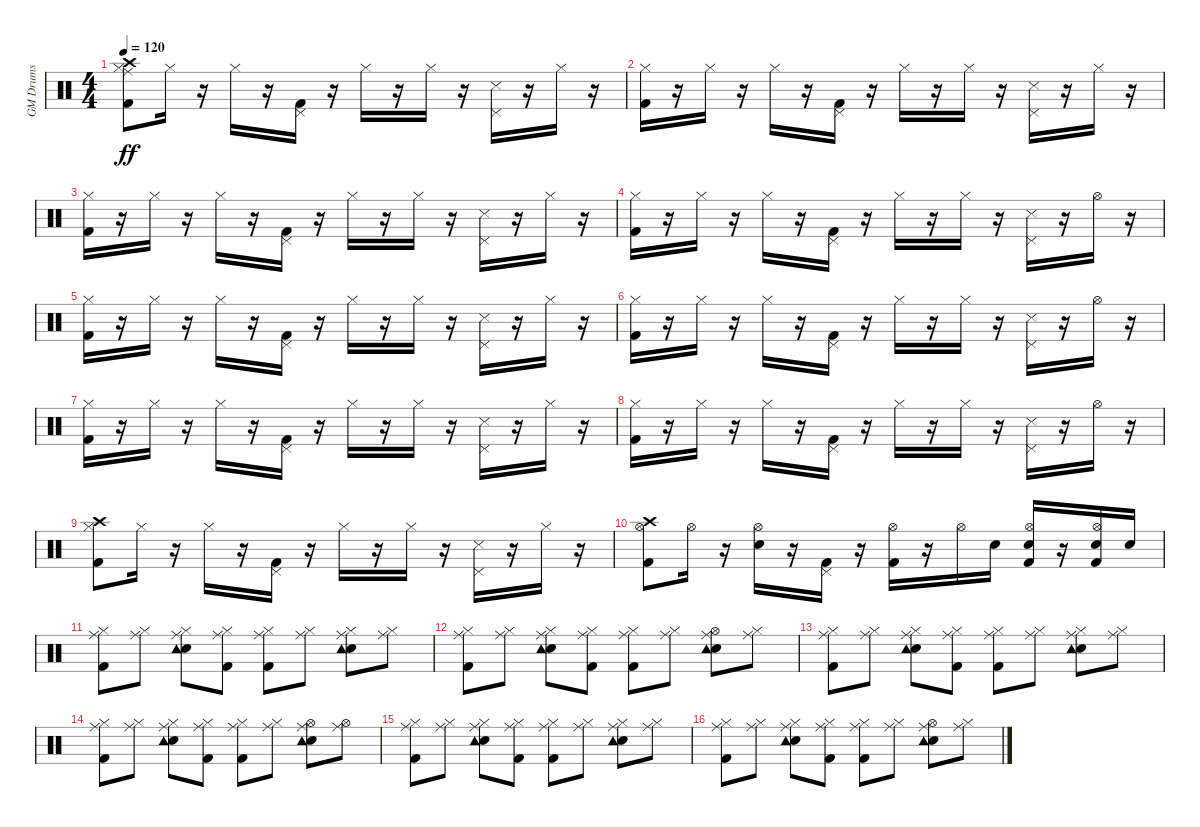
\track ("GM Drums" "GM Drums") {instrument percussion}
\staff {score}
\articulation defaults
\ts (4 4)
\tempo 120
\clef neutral
\ks c
("Kick (hit) 2" "Hi-Hat (closed)" "Crash high (hit)" "Ride (middle)").8{dy ff} "Hi-Hat (closed)".16 r.16 "Hi-Hat (closed)".16 r.16 ("Kick (hit) 2" "Pedal Hi-Hat (hit)").16 r.16 "Hi-Hat (closed)".16 r.16 "Hi-Hat (closed)".16 r.16 ("Snare (side stick) 3" "Pedal Hi-Hat (hit)").16 r.16 "Hi-Hat (closed)".16 r.16 |
("Kick (hit) 2" "Hi-Hat (closed)").16 r.16 "Hi-Hat (closed)".16 r.16 "Hi-Hat (closed)".16 r.16 ("Kick (hit) 2" "Pedal Hi-Hat (hit)").16 r.16 "Hi-Hat (closed)".16 r.16 "Hi-Hat (closed)".16 r.16 ("Snare (side stick) 3" "Pedal Hi-Hat (hit)").16 r.16 "Hi-Hat (closed)".16 r.16 |
("Kick (hit) 2" "Hi-Hat (closed)").16 r.16 "Hi-Hat (closed)".16 r.16 "Hi-Hat (closed)".16 r.16 ("Kick (hit) 2" "Pedal Hi-Hat (hit)").16 r.16 "Hi-Hat (closed)".16 r.16 "Hi-Hat (closed)".16 r.16 ("Snare (side stick) 3" "Pedal Hi-Hat (hit)").16 r.16 "Hi-Hat (closed)".16 r.16 |
("Kick (hit) 2" "Hi-Hat (closed)").16 r.16 "Hi-Hat (closed)".16 r.16 "Hi-Hat (closed)".16 r.16 ("Kick (hit) 2" "Pedal Hi-Hat (hit)").16 r.16 "Hi-Hat (closed)".16 r.16 "Hi-Hat (closed)".16 r.16 ("Snare (side stick) 3" "Pedal Hi-Hat (hit)").16 r.16 "Hi-Hat (open)".16 r.16 |
("Kick (hit) 2" "Hi-Hat (closed)").16 r.16 "Hi-Hat (closed)".16 r.16 "Hi-Hat (closed)".16 r.16 ("Kick (hit) 2" "Pedal Hi-Hat (hit)").16 r.16 "Hi-Hat (closed)".16 r.16 "Hi-Hat (closed)".16 r.16 ("Snare (side stick) 3" "Pedal Hi-Hat (hit)").16 r.16 "Hi-Hat (closed)".16 r.16 |
("Kick (hit) 2" "Hi-Hat (closed)").16 r.16 "Hi-Hat (closed)".16 r.16 "Hi-Hat (closed)".16 r.16 ("Kick (hit) 2" "Pedal Hi-Hat (hit)").16 r.16 "Hi-Hat (closed)".16 r.16 "Hi-Hat (closed)".16 r.16 ("Snare (side stick) 3" "Pedal Hi-Hat (hit)").16 r.16 "Hi-Hat (open)".16 r.16 |
("Kick (hit) 2" "Hi-Hat (closed)").16 r.16 "Hi-Hat (closed)".16 r.16 "Hi-Hat (closed)".16 r.16 ("Kick (hit) 2" "Pedal Hi-Hat (hit)").16 r.16 "Hi-Hat (closed)".16 r.16 "Hi-Hat (closed)".16 r.16 ("Snare (side stick) 3" "Pedal Hi-Hat (hit)").16 r.16 "Hi-Hat (closed)".16 r.16 |
("Kick (hit) 2" "Hi-Hat (closed)").16 r.16 "Hi-Hat (closed)".16 r.16 "Hi-Hat (closed)".16 r.16 ("Kick (hit) 2" "Pedal Hi-Hat (hit)").16 r.16 "Hi-Hat (closed)".16 r.16 "Hi-Hat (closed)".16 r.16 ("Snare (side stick) 3" "Pedal Hi-Hat (hit)").16 r.16 "Hi-Hat (open)".16 r.16 |
("Kick (hit) 2" "Hi-Hat (closed)" "Crash high (hit)").8 "Hi-Hat (closed)".16 r.16 "Hi-Hat (closed)".16 r.16 ("Kick (hit) 2" "Pedal Hi-Hat (hit)").16 r.16 "Hi-Hat (closed)".16 r.16 "Hi-Hat (closed)".16 r.16 ("Snare (side stick) 3" "Pedal Hi-Hat (hit)").16 r.16 "Hi-Hat (closed)".16 r.16 |
("Kick (hit) 2" "Hi-Hat (open)" "Crash high (hit)").8 "Hi-Hat (open)".16 r.16 ("Electric Snare (hit)" "Hi-Hat (open)").16 r.16 ("Kick (hit) 2" "Pedal Hi-Hat (hit)").16 r.16 ("Kick (hit) 2" "Hi-Hat (open)").16 r.16 "Hi-Hat (open)".16 "Electric Snare (hit)".16 ("Kick (hit) 2" "Electric Snare (hit)" "Hi-Hat (open)").16 r.16 ("Kick (hit) 2" "Electric Snare (hit)" "Hi-Hat (open)").16 "Electric Snare (hit)".16 |
("Kick (hit) 2" "Hi-Hat (closed)" "Ride (middle)").8 ("Hi-Hat (closed)" "Ride (middle)").8 ("Electric Snare (hit)" "Hi-Hat (closed)" "Ride (middle)" "Tambourine (hit)").8 ("Kick (hit) 2" "Hi-Hat (closed)" "Ride (middle)").8 ("Kick (hit) 2" "Hi-Hat (closed)" "Ride (middle)").8 ("Hi-Hat (closed)" "Ride (middle)").8 ("Electric Snare (hit)" "Hi-Hat (closed)" "Ride (middle)" "Tambourine (hit)").8 ("Hi-Hat (closed)" "Ride (middle)").8 |
("Kick (hit) 2" "Hi-Hat (closed)" "Ride (middle)").8 ("Hi-Hat (closed)" "Ride (middle)").8 ("Electric Snare (hit)" "Hi-Hat (closed)" "Ride (middle)" "Tambourine (hit)").8 ("Kick (hit) 2" "Hi-Hat (closed)" "Ride (middle)").8 ("Kick (hit) 2" "Hi-Hat (closed)" "Ride (middle)").8 ("Hi-Hat (closed)" "Ride (middle)").8 ("Electric Snare (hit)" "Hi-Hat (open)" "Ride (middle)" "Tambourine (hit)").8 ("Hi-Hat (closed)" "Ride (middle)").8 |
("Kick (hit) 2" "Hi-Hat (closed)" "Ride (middle)").8 ("Hi-Hat (closed)" "Ride (middle)").8 ("Electric Snare (hit)" "Hi-Hat (closed)" "Ride (middle)" "Tambourine (hit)").8 ("Kick (hit) 2" "Hi-Hat (closed)" "Ride (middle)").8 ("Kick (hit) 2" "Hi-Hat (closed)" "Ride (middle)").8 ("Hi-Hat (closed)" "Ride (middle)").8 ("Electric Snare (hit)" "Hi-Hat (closed)" "Ride (middle)" "Tambourine (hit)").8 ("Hi-Hat (closed)" "Ride (middle)").8 |
("Kick (hit) 2" "Hi-Hat (closed)" "Ride (middle)").8 ("Hi-Hat (closed)" "Ride (middle)").8 ("Electric Snare (hit)" "Hi-Hat (closed)" "Ride (middle)" "Tambourine (hit)").8 ("Kick (hit) 2" "Hi-Hat (closed)" "Ride (middle)").8 ("Kick (hit) 2" "Hi-Hat (closed)" "Ride (middle)").8 ("Hi-Hat (closed)" "Ride (middle)").8 ("Electric Snare (hit)" "Hi-Hat (open)" "Ride (middle)" "Tambourine (hit)").8 ("Hi-Hat (open)" "Ride (middle)").8 |
("Kick (hit) 2" "Hi-Hat (closed)" "Ride (middle)").8 ("Hi-Hat (closed)" "Ride (middle)").8 ("Electric Snare (hit)" "Hi-Hat (closed)" "Ride (middle)" "Tambourine (hit)").8 ("Kick (hit) 2" "Hi-Hat (closed)" "Ride (middle)").8 ("Kick (hit) 2" "Hi-Hat (closed)" "Ride (middle)").8 ("Hi-Hat (closed)" "Ride (middle)").8 ("Electric Snare (hit)" "Hi-Hat (closed)" "Ride (middle)" "Tambourine (hit)").8 ("Hi-Hat (closed)" "Ride (middle)").8 |
("Kick (hit) 2" "Hi-Hat (closed)" "Ride (middle)").8 ("Hi-Hat (closed)" "Ride (middle)").8 ("Electric Snare (hit)" "Hi-Hat (closed)" "Ride (middle)" "Tambourine (hit)").8 ("Kick (hit) 2" "Hi-Hat (closed)" "Ride (middle)").8 ("Kick (hit) 2" "Hi-Hat (closed)" "Ride (middle)").8 ("Hi-Hat (closed)" "Ride (middle)").8 ("Electric Snare (hit)" "Hi-Hat (open)" "Ride (middle)" "Tambourine (hit)").8 ("Hi-Hat (closed)" "Ride (middle)").8
